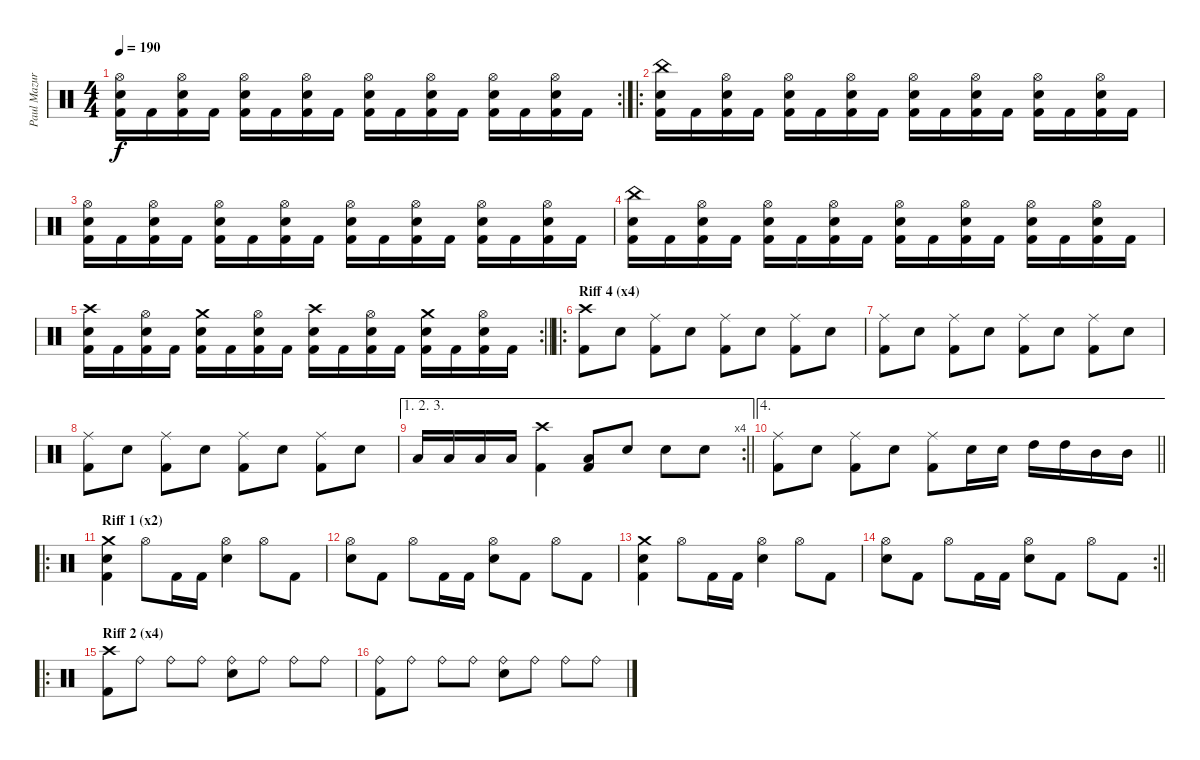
\track ("Paul Mazurkiewicz" "Paul Mazur") {instrument percussion}
\staff {score}
\articulation defaults
\rc 2
\ts (4 4)
\tempo 190
\clef neutral
\ks c
("Hi-Hat (open)" "Electric Snare (hit)" "Kick (hit) 2").16{dy f} "Kick (hit) 2".16 ("Hi-Hat (open)" "Electric Snare (hit)" "Kick (hit) 2").16 "Kick (hit) 2".16 ("Hi-Hat (open)" "Electric Snare (hit)" "Kick (hit) 2").16 "Kick (hit) 2".16 ("Hi-Hat (open)" "Electric Snare (hit)" "Kick (hit) 2").16 "Kick (hit) 2".16 ("Hi-Hat (open)" "Electric Snare (hit)" "Kick (hit) 2").16 "Kick (hit) 2".16 ("Hi-Hat (open)" "Electric Snare (hit)" "Kick (hit) 2").16 "Kick (hit) 2".16 ("Hi-Hat (open)" "Electric Snare (hit)" "Kick (hit) 2").16 "Kick (hit) 2".16 ("Hi-Hat (open)" "Electric Snare (hit)" "Kick (hit) 2").16 "Kick (hit) 2".16 |
\ro
("China (hit)" "Electric Snare (hit)" "Kick (hit) 2").16 "Kick (hit) 2".16 ("Hi-Hat (open)" "Electric Snare (hit)" "Kick (hit) 2").16 "Kick (hit) 2".16 ("Hi-Hat (open)" "Electric Snare (hit)" "Kick (hit) 2").16 "Kick (hit) 2".16 ("Hi-Hat (open)" "Electric Snare (hit)" "Kick (hit) 2").16 "Kick (hit) 2".16 ("Hi-Hat (open)" "Electric Snare (hit)" "Kick (hit) 2").16 "Kick (hit) 2".16 ("Hi-Hat (open)" "Electric Snare (hit)" "Kick (hit) 2").16 "Kick (hit) 2".16 ("Hi-Hat (open)" "Electric Snare (hit)" "Kick (hit) 2").16 "Kick (hit) 2".16 ("Hi-Hat (open)" "Electric Snare (hit)" "Kick (hit) 2").16 "Kick (hit) 2".16 |
("Hi-Hat (open)" "Electric Snare (hit)" "Kick (hit) 2").16 "Kick (hit) 2".16 ("Hi-Hat (open)" "Electric Snare (hit)" "Kick (hit) 2").16 "Kick (hit) 2".16 ("Hi-Hat (open)" "Electric Snare (hit)" "Kick (hit) 2").16 "Kick (hit) 2".16 ("Hi-Hat (open)" "Electric Snare (hit)" "Kick (hit) 2").16 "Kick (hit) 2".16 ("Hi-Hat (open)" "Electric Snare (hit)" "Kick (hit) 2").16 "Kick (hit) 2".16 ("Hi-Hat (open)" "Electric Snare (hit)" "Kick (hit) 2").16 "Kick (hit) 2".16 ("Hi-Hat (open)" "Electric Snare (hit)" "Kick (hit) 2").16 "Kick (hit) 2".16 ("Hi-Hat (open)" "Electric Snare (hit)" "Kick (hit) 2").16 "Kick (hit) 2".16 |
("China (hit)" "Electric Snare (hit)" "Kick (hit) 2").16 "Kick (hit) 2".16 ("Hi-Hat (open)" "Electric Snare (hit)" "Kick (hit) 2").16 "Kick (hit) 2".16 ("Hi-Hat (open)" "Electric Snare (hit)" "Kick (hit) 2").16 "Kick (hit) 2".16 ("Hi-Hat (open)" "Electric Snare (hit)" "Kick (hit) 2").16 "Kick (hit) 2".16 ("Hi-Hat (open)" "Electric Snare (hit)" "Kick (hit) 2").16 "Kick (hit) 2".16 ("Hi-Hat (open)" "Electric Snare (hit)" "Kick (hit) 2").16 "Kick (hit) 2".16 ("Hi-Hat (open)" "Electric Snare (hit)" "Kick (hit) 2").16 "Kick (hit) 2".16 ("Hi-Hat (open)" "Electric Snare (hit)" "Kick (hit) 2").16 "Kick (hit) 2".16 |
\rc 2
\barLineRight lightlight
("Crash high (hit)" "Electric Snare (hit)" "Kick (hit) 2").16 "Kick (hit) 2".16 ("Hi-Hat (open)" "Electric Snare (hit)" "Kick (hit) 2").16 "Kick (hit) 2".16 ("Crash medium (hit)" "Electric Snare (hit)" "Kick (hit) 2").16 "Kick (hit) 2".16 ("Hi-Hat (open)" "Electric Snare (hit)" "Kick (hit) 2").16 "Kick (hit) 2".16 ("Crash high (hit)" "Electric Snare (hit)" "Kick (hit) 2").16 "Kick (hit) 2".16 ("Hi-Hat (open)" "Electric Snare (hit)" "Kick (hit) 2").16 "Kick (hit) 2".16 ("Crash medium (hit)" "Electric Snare (hit)" "Kick (hit) 2").16 "Kick (hit) 2".16 ("Hi-Hat (open)" "Electric Snare (hit)" "Kick (hit) 2").16 "Kick (hit) 2".16 |
\ro
\section ("" "Riff 4 (x4)")
("Crash high (hit)" "Kick (hit) 2").8 "Electric Snare (hit)".8 ("Ride (middle)" "Kick (hit) 2").8 "Electric Snare (hit)".8 ("Ride (middle)" "Kick (hit) 2").8 "Electric Snare (hit)".8 ("Ride (middle)" "Kick (hit) 2").8 "Electric Snare (hit)".8 |
("Ride (middle)" "Kick (hit) 2").8 "Electric Snare (hit)".8 ("Ride (middle)" "Kick (hit) 2").8 "Electric Snare (hit)".8 ("Ride (middle)" "Kick (hit) 2").8 "Electric Snare (hit)".8 ("Ride (middle)" "Kick (hit) 2").8 "Electric Snare (hit)".8 |
("Ride (middle)" "Kick (hit) 2").8 "Electric Snare (hit)".8 ("Ride (middle)" "Kick (hit) 2").8 "Electric Snare (hit)".8 ("Ride (middle)" "Kick (hit) 2").8 "Electric Snare (hit)".8 ("Ride (middle)" "Kick (hit) 2").8 "Electric Snare (hit)".8 |
\ae (1 2 3)
\rc 4
\barLineRight lightlight "Low Tom (hit)".16 "Low Tom (hit)".16 "Low Tom (hit)".16 "Low Tom (hit)".16
("Crash high (hit)" "Kick (hit) 2").4 ("Low Tom (hit)" "Kick (hit) 2").8 "Electric Snare (hit)".8 "Electric Snare (hit)".8 "Electric Snare (hit)".8 |
\ae 4
\barLineRight lightlight
("Ride (middle)" "Kick (hit) 2").8 "Electric Snare (hit)".8 ("Ride (middle)" "Kick (hit) 2").8 "Electric Snare (hit)".8 ("Ride (middle)" "Kick (hit) 2").8 "Electric Snare (hit)".16 "Electric Snare (hit)".16 "High Tom (hit)".16 "High Tom (hit)".16 "Mid Tom (hit)".16 "Mid Tom (hit)".16 |
\ro
\section ("" "Riff 1 (x2)")
("Crash medium (hit)" "Electric Snare (hit)" "Kick (hit) 2").4 "Hi-Hat (open)".8 "Kick (hit) 2".16 "Kick (hit) 2".16 ("Hi-Hat (open)" "Electric Snare (hit)").4 "Hi-Hat (open)".8 "Kick (hit) 2".8 |
("Hi-Hat (open)" "Electric Snare (hit)").8 "Kick (hit) 2".8 "Hi-Hat (open)".8 "Kick (hit) 2".16 "Kick (hit) 2".16 ("Hi-Hat (open)" "Electric Snare (hit)").8 "Kick (hit) 2".8 "Hi-Hat (open)".8 "Kick (hit) 2".8 |
("Crash medium (hit)" "Electric Snare (hit)" "Kick (hit) 2").4 "Hi-Hat (open)".8 "Kick (hit) 2".16 "Kick (hit) 2".16 ("Hi-Hat (open)" "Electric Snare (hit)").4 "Hi-Hat (open)".8 "Kick (hit) 2".8 |
\rc 2
\barLineRight lightlight
("Hi-Hat (open)" "Electric Snare (hit)").8 "Kick (hit) 2".8 "Hi-Hat (open)".8 "Kick (hit) 2".16 "Kick (hit) 2".16 ("Hi-Hat (open)" "Electric Snare (hit)").8 "Kick (hit) 2".8 "Hi-Hat (open)".8 "Kick (hit) 2".8 |
\ro
\section ("" "Riff 2 (x4)")
("Crash high (hit)" "Kick (hit) 2").8 "Ride (bell)".8 "Ride (bell)".8 "Ride (bell)".8 ("Ride (bell)" "Electric Snare (hit)").8 "Ride (bell)".8 "Ride (bell)".8 "Ride (bell)".8 |
("Ride (bell)" "Kick (hit) 2").8 "Ride (bell)".8 "Ride (bell)".8 "Ride (bell)".8 ("Ride (bell)" "Electric Snare (hit)").8 "Ride (bell)".8 "Ride (bell)".8 "Ride (bell)".8
